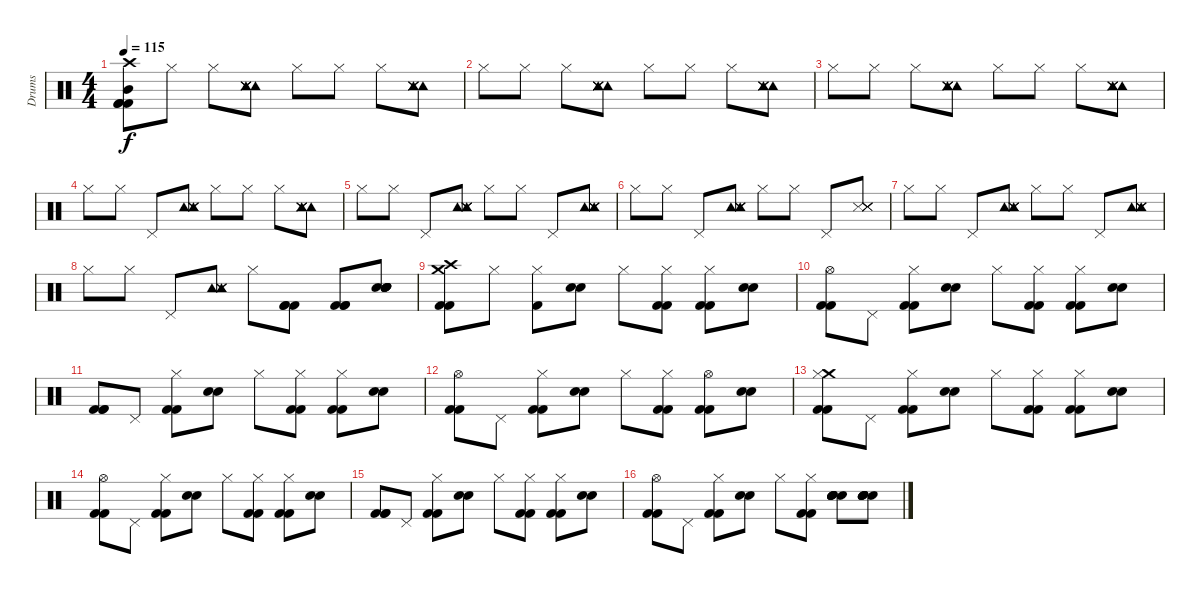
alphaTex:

\track ("Drums" "Drums") {instrument percussion}
\staff {score}
\articulation defaults
\ts (4 4)
\tempo 115
\clef neutral
\ks c
("Mid Tom (hit)" "Crash high (hit)" "Kick (hit) 2" "Kick (hit) 2" "Kick (hit) 2").8{dy f} "Hi-Hat (closed)".8 "Hi-Hat (closed)".8 ("Tambourine (hit)" "Tambourine (hit)" "Snare (side stick) 3" "Snare (side stick) 3" "Snare (side stick) 3" "Snare (side stick) 3").8 "Hi-Hat (closed)".8 "Hi-Hat (closed)".8 "Hi-Hat (closed)".8 ("Tambourine (hit)" "Tambourine (hit)" "Snare (side stick) 3" "Snare (side stick) 3" "Snare (side stick) 3" "Snare (side stick) 3").8 |
"Hi-Hat (closed)".8 "Hi-Hat (closed)".8 "Hi-Hat (closed)".8 ("Tambourine (hit)" "Tambourine (hit)" "Snare (side stick) 3" "Snare (side stick) 3" "Snare (side stick) 3" "Snare (side stick) 3").8 "Hi-Hat (closed)".8 "Hi-Hat (closed)".8 "Hi-Hat (closed)".8 ("Tambourine (hit)" "Tambourine (hit)" "Snare (side stick) 3" "Snare (side stick) 3" "Snare (side stick) 3" "Snare (side stick) 3").8 |
"Hi-Hat (closed)".8 "Hi-Hat (closed)".8 "Hi-Hat (closed)".8 ("Tambourine (hit)" "Tambourine (hit)" "Snare (side stick) 3" "Snare (side stick) 3" "Snare (side stick) 3" "Snare (side stick) 3").8 "Hi-Hat (closed)".8 "Hi-Hat (closed)".8 "Hi-Hat (closed)".8 ("Tambourine (hit)" "Tambourine (hit)" "Snare (side stick) 3" "Snare (side stick) 3" "Snare (side stick) 3" "Snare (side stick) 3").8 |
"Hi-Hat (closed)".8 "Hi-Hat (closed)".8 "Pedal Hi-Hat (hit)".8 ("Tambourine (hit)" "Tambourine (hit)" "Snare (side stick) 3" "Snare (side stick) 3" "Snare (side stick) 3" "Snare (side stick) 3").8 "Hi-Hat (closed)".8 "Hi-Hat (closed)".8 "Hi-Hat (closed)".8 ("Tambourine (hit)" "Tambourine (hit)" "Snare (side stick) 3" "Snare (side stick) 3" "Snare (side stick) 3" "Snare (side stick) 3").8 |
"Hi-Hat (closed)".8 "Hi-Hat (closed)".8 "Pedal Hi-Hat (hit)".8 ("Tambourine (hit)" "Tambourine (hit)" "Snare (side stick) 3" "Snare (side stick) 3" "Snare (side stick) 3" "Snare (side stick) 3").8 "Hi-Hat (closed)".8 "Hi-Hat (closed)".8 "Pedal Hi-Hat (hit)".8 ("Tambourine (hit)" "Tambourine (hit)" "Snare (side stick) 3" "Snare (side stick) 3" "Snare (side stick) 3" "Snare (side stick) 3").8 |
"Hi-Hat (closed)".8 "Hi-Hat (closed)".8 "Pedal Hi-Hat (hit)".8 ("Tambourine (hit)" "Tambourine (hit)" "Snare (side stick) 3" "Snare (side stick) 3" "Snare (side stick) 3" "Snare (side stick) 3").8 "Hi-Hat (closed)".8 "Hi-Hat (closed)".8 "Pedal Hi-Hat (hit)".8 ("Snare (side stick) 3" "Snare (side stick) 3" "Snare (side stick) 3" "Snare (side stick) 3" "Snare (side stick) 3").8 |
"Hi-Hat (closed)".8 "Hi-Hat (closed)".8 "Pedal Hi-Hat (hit)".8 ("Tambourine (hit)" "Tambourine (hit)" "Snare (side stick) 3" "Snare (side stick) 3" "Snare (side stick) 3" "Snare (side stick) 3").8 "Hi-Hat (closed)".8 "Hi-Hat (closed)".8 "Pedal Hi-Hat (hit)".8 ("Tambourine (hit)" "Tambourine (hit)" "Snare (side stick) 3" "Snare (side stick) 3" "Snare (side stick) 3" "Snare (side stick) 3").8 |
"Hi-Hat (closed)".8 "Hi-Hat (closed)".8 "Pedal Hi-Hat (hit)".8 ("Tambourine (hit)" "Tambourine (hit)" "Snare (side stick) 3" "Snare (side stick) 3" "Snare (side stick) 3" "Snare (side stick) 3").8 "Hi-Hat (closed)".8 ("Kick (hit) 2" "Kick (hit) 2" "Kick (hit) 2").8 ("Kick (hit) 2" "Kick (hit) 2" "Kick (hit) 2").8 ("Snare (hit) 2" "Snare (hit) 2" "Snare (hit) 2" "Snare (hit) 2" "Snare (hit) 2").8 |
("Crash medium (hit)" "Crash high (hit)" "Kick (hit) 2" "Kick (hit) 2").8 "Hi-Hat (closed)".8 ("Hi-Hat (closed)" "Kick (hit) 2").8 ("Snare (hit) 2" "Snare (hit) 2").8 "Hi-Hat (closed)".8 ("Hi-Hat (closed)" "Kick (hit) 2" "Kick (hit) 2").8 ("Hi-Hat (closed)" "Kick (hit) 2" "Kick (hit) 2").8 ("Snare (hit) 2" "Snare (hit) 2").8 |
("Hi-Hat (open)" "Kick (hit) 2" "Kick (hit) 2").8 "Pedal Hi-Hat (hit)".8 ("Hi-Hat (closed)" "Kick (hit) 2" "Kick (hit) 2").8 ("Snare (hit) 2" "Snare (hit) 2").8 "Hi-Hat (closed)".8 ("Hi-Hat (closed)" "Kick (hit) 2" "Kick (hit) 2").8 ("Hi-Hat (closed)" "Kick (hit) 2" "Kick (hit) 2").8 ("Snare (hit) 2" "Snare (hit) 2").8 |
("Kick (hit) 2" "Kick (hit) 2" "Kick (hit) 2").8 "Pedal Hi-Hat (hit)".8 ("Hi-Hat (closed)" "Kick (hit) 2" "Kick (hit) 2").8 ("Snare (hit) 2" "Snare (hit) 2").8 "Hi-Hat (closed)".8 ("Hi-Hat (closed)" "Kick (hit) 2" "Kick (hit) 2").8 ("Hi-Hat (closed)" "Kick (hit) 2" "Kick (hit) 2").8 ("Snare (hit) 2" "Snare (hit) 2").8 |
("Hi-Hat (open)" "Kick (hit) 2" "Kick (hit) 2").8 "Pedal Hi-Hat (hit)".8 ("Hi-Hat (closed)" "Kick (hit) 2" "Kick (hit) 2").8 ("Snare (hit) 2" "Snare (hit) 2").8 "Hi-Hat (closed)".8 ("Hi-Hat (closed)" "Kick (hit) 2" "Kick (hit) 2").8 ("Hi-Hat (open)" "Kick (hit) 2" "Kick (hit) 2").8 ("Snare (hit) 2" "Snare (hit) 2").8 |
("Crash medium (hit)" "Hi-Hat (closed)" "Kick (hit) 2" "Kick (hit) 2").8 "Pedal Hi-Hat (hit)".8 ("Hi-Hat (closed)" "Kick (hit) 2" "Kick (hit) 2").8 ("Snare (hit) 2" "Snare (hit) 2").8 "Hi-Hat (closed)".8 ("Hi-Hat (closed)" "Kick (hit) 2" "Kick (hit) 2").8 ("Hi-Hat (closed)" "Kick (hit) 2" "Kick (hit) 2").8 ("Snare (hit) 2" "Snare (hit) 2").8 |
("Hi-Hat (open)" "Kick (hit) 2" "Kick (hit) 2").8 "Pedal Hi-Hat (hit)".8 ("Hi-Hat (closed)" "Kick (hit) 2" "Kick (hit) 2").8 ("Snare (hit) 2" "Snare (hit) 2").8 "Hi-Hat (closed)".8 ("Hi-Hat (closed)" "Kick (hit) 2" "Kick (hit) 2").8 ("Hi-Hat (closed)" "Kick (hit) 2" "Kick (hit) 2").8 ("Snare (hit) 2" "Snare (hit) 2").8 |
("Kick (hit) 2" "Kick (hit) 2" "Kick (hit) 2").8 "Pedal Hi-Hat (hit)".8 ("Hi-Hat (closed)" "Kick (hit) 2" "Kick (hit) 2").8 ("Snare (hit) 2" "Snare (hit) 2").8 "Hi-Hat (closed)".8 ("Hi-Hat (closed)" "Kick (hit) 2" "Kick (hit) 2").8 ("Hi-Hat (closed)" "Kick (hit) 2" "Kick (hit) 2").8 ("Snare (hit) 2" "Snare (hit) 2").8 |
("Hi-Hat (open)" "Kick (hit) 2" "Kick (hit) 2").8 "Pedal Hi-Hat (hit)".8 ("Hi-Hat (closed)" "Kick (hit) 2" "Kick (hit) 2").8 ("Snare (hit) 2" "Snare (hit) 2").8 "Hi-Hat (closed)".8 ("Hi-Hat (closed)" "Kick (hit) 2" "Kick (hit) 2").8 ("Snare (hit) 2" "Snare (hit) 2" "Snare (hit) 2" "Snare (hit) 2" "Snare (hit) 2").8 ("Snare (hit) 2" "Snare (hit) 2" "Snare (hit) 2" "Snare (hit) 2" "Snare (hit) 2").8
